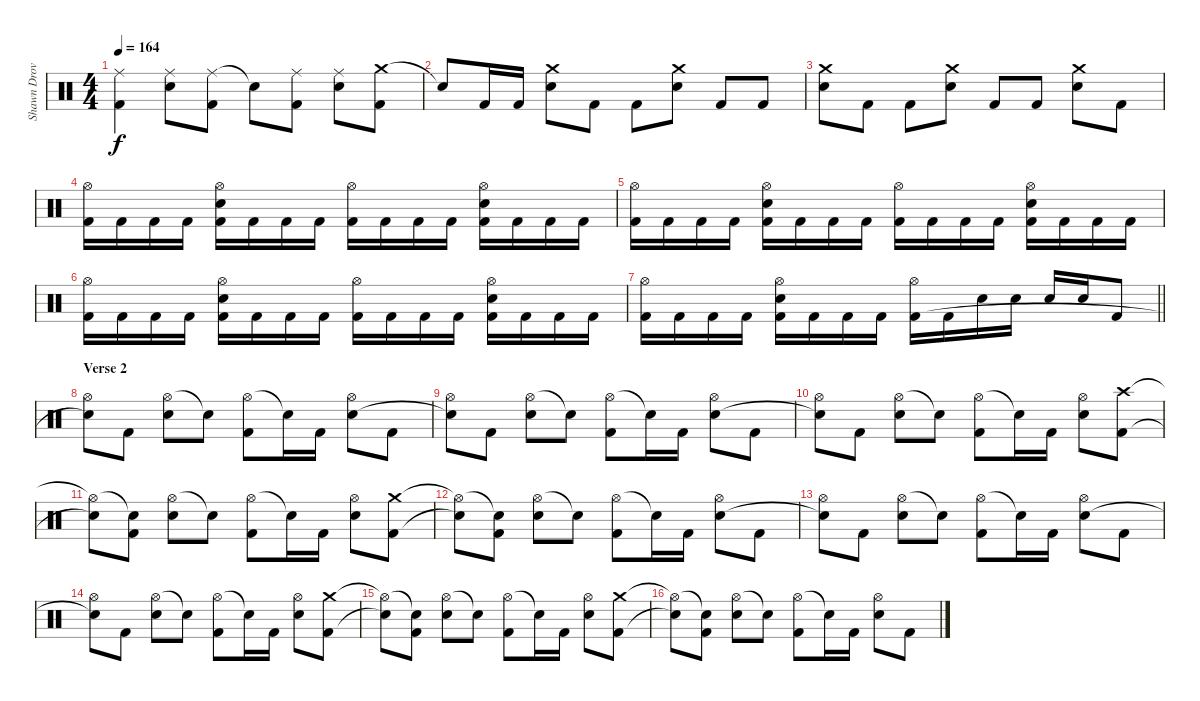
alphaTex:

\track ("Shawn Drover" "Shawn Drov") {instrument percussion}
\staff {score}
\articulation defaults
\ts (4 4)
\tempo 164
\clef neutral
\ks c
("Ride (middle)" "Kick (hit) 2").4{dy f} ("Ride (middle)" "Snare (hit) 2").8 ("Ride (middle)" "Kick (hit) 2").8 "Snare (hit)"{t}.8 ("Ride (middle)" "Kick (hit) 2").8 ("Ride (middle)" "Snare (hit) 2").8 ("Crash medium (hit)" "Kick (hit) 2").8 |
"Snare (hit)"{t}.8 "Kick (hit) 2".16 "Kick (hit) 2".16 ("Crash medium (hit)" "Snare (hit) 2").8 "Kick (hit) 2".8 "Kick (hit) 2".8 ("Crash medium (hit)" "Snare (hit) 2").8 "Kick (hit) 2".8 "Kick (hit) 2".8 |
("Crash medium (hit)" "Snare (hit) 2").8 "Kick (hit) 2".8 "Kick (hit) 2".8 ("Crash medium (hit)" "Snare (hit) 2").8 "Kick (hit) 2".8 "Kick (hit) 2".8 ("Crash medium (hit)" "Snare (hit) 2").8 "Kick (hit) 2".8 |
("Hi-Hat (open)" "Kick (hit) 2").16 "Kick (hit) 2".16 "Kick (hit) 2".16 "Kick (hit) 2".16 ("Hi-Hat (open)" "Snare (hit) 2" "Kick (hit) 2").16 "Kick (hit) 2".16 "Kick (hit) 2".16 "Kick (hit) 2".16 ("Hi-Hat (open)" "Kick (hit) 2").16 "Kick (hit) 2".16 "Kick (hit) 2".16 "Kick (hit) 2".16 ("Hi-Hat (open)" "Snare (hit) 2" "Kick (hit) 2").16 "Kick (hit) 2".16 "Kick (hit) 2".16 "Kick (hit) 2".16 |
("Hi-Hat (open)" "Kick (hit) 2").16 "Kick (hit) 2".16 "Kick (hit) 2".16 "Kick (hit) 2".16 ("Hi-Hat (open)" "Snare (hit) 2" "Kick (hit) 2").16 "Kick (hit) 2".16 "Kick (hit) 2".16 "Kick (hit) 2".16 ("Hi-Hat (open)" "Kick (hit) 2").16 "Kick (hit) 2".16 "Kick (hit) 2".16 "Kick (hit) 2".16 ("Hi-Hat (open)" "Snare (hit) 2" "Kick (hit) 2").16 "Kick (hit) 2".16 "Kick (hit) 2".16 "Kick (hit) 2".16 |
("Hi-Hat (open)" "Kick (hit) 2").16 "Kick (hit) 2".16 "Kick (hit) 2".16 "Kick (hit) 2".16 ("Hi-Hat (open)" "Snare (hit) 2" "Kick (hit) 2").16 "Kick (hit) 2".16 "Kick (hit) 2".16 "Kick (hit) 2".16 ("Hi-Hat (open)" "Kick (hit) 2").16 "Kick (hit) 2".16 "Kick (hit) 2".16 "Kick (hit) 2".16 ("Hi-Hat (open)" "Snare (hit) 2" "Kick (hit) 2").16 "Kick (hit) 2".16 "Kick (hit) 2".16 "Kick (hit) 2".16 |
\barLineRight lightlight
("Hi-Hat (open)" "Kick (hit) 2").16 "Kick (hit) 2".16 "Kick (hit) 2".16 "Kick (hit) 2".16 ("Hi-Hat (open)" "Snare (hit) 2" "Kick (hit) 2").16 "Kick (hit) 2".16 "Kick (hit) 2".16 "Kick (hit) 2".16 ("Hi-Hat (open)" "Kick (hit) 2").16 "Kick (hit) 2".16 "Snare (hit) 2".16 "Snare (hit) 2".16 "Snare (hit) 2".16 "Snare (hit) 2".16 "Kick (hit) 2".8 |
\section ("" "Verse 2")
("Hi-Hat (open)" "Snare (hit)"{t}).8 "Kick (hit) 2".8 ("Hi-Hat (open)" "Snare (hit) 2").8 "Snare (hit)"{t}.8 ("Hi-Hat (open)" "Kick (hit) 2").8 "Snare (hit)"{t}.16 "Kick (hit) 2".16 ("Hi-Hat (open)" "Snare (hit) 2").8 "Kick (hit) 2".8 |
("Hi-Hat (open)" "Snare (hit)"{t}).8 "Kick (hit) 2".8 ("Hi-Hat (open)" "Snare (hit) 2").8 "Snare (hit)"{t}.8 ("Hi-Hat (open)" "Kick (hit) 2").8 "Snare (hit)"{t}.16 "Kick (hit) 2".16 ("Hi-Hat (open)" "Snare (hit) 2").8 "Kick (hit) 2".8 |
("Hi-Hat (open)" "Snare (hit)"{t}).8 "Kick (hit) 2".8 ("Hi-Hat (open)" "Snare (hit) 2").8 "Snare (hit)"{t}.8 ("Hi-Hat (open)" "Kick (hit) 2").8 "Snare (hit)"{t}.16 "Kick (hit) 2".16 ("Hi-Hat (open)" "Snare (hit) 2").8 ("Crash high (hit)" "Kick (hit) 2").8 |
("Hi-Hat (open)"{t} "Snare (hit)"{t}).8 ("Snare (hit)"{t} "Kick (hit) 2").8 ("Hi-Hat (open)" "Snare (hit) 2").8 "Snare (hit)"{t}.8 ("Hi-Hat (open)" "Kick (hit) 2").8 "Snare (hit)"{t}.16 "Kick (hit) 2".16 ("Hi-Hat (open)" "Snare (hit) 2").8 ("Crash medium (hit)" "Kick (hit) 2").8 |
("Hi-Hat (open)"{t} "Snare (hit)"{t}).8 ("Snare (hit)"{t} "Kick (hit) 2").8 ("Hi-Hat (open)" "Snare (hit) 2").8 "Snare (hit)"{t}.8 ("Hi-Hat (open)" "Kick (hit) 2").8 "Snare (hit)"{t}.16 "Kick (hit) 2".16 ("Hi-Hat (open)" "Snare (hit) 2").8 "Kick (hit) 2".8 |
("Hi-Hat (open)" "Snare (hit)"{t}).8 "Kick (hit) 2".8 ("Hi-Hat (open)" "Snare (hit) 2").8 "Snare (hit)"{t}.8 ("Hi-Hat (open)" "Kick (hit) 2").8 "Snare (hit)"{t}.16 "Kick (hit) 2".16 ("Hi-Hat (open)" "Snare (hit) 2").8 "Kick (hit) 2".8 |
("Hi-Hat (open)" "Snare (hit)"{t}).8 "Kick (hit) 2".8 ("Hi-Hat (open)" "Snare (hit) 2").8 "Snare (hit)"{t}.8 ("Hi-Hat (open)" "Kick (hit) 2").8 "Snare (hit)"{t}.16 "Kick (hit) 2".16 ("Hi-Hat (open)" "Snare (hit) 2").8 ("Crash medium (hit)" "Kick (hit) 2").8 |
("Hi-Hat (open)"{t} "Snare (hit)"{t}).8 ("Snare (hit)"{t} "Kick (hit) 2").8 ("Hi-Hat (open)" "Snare (hit) 2").8 "Snare (hit)"{t}.8 ("Hi-Hat (open)" "Kick (hit) 2").8 "Snare (hit)"{t}.16 "Kick (hit) 2".16 ("Hi-Hat (open)" "Snare (hit) 2").8 ("Crash medium (hit)" "Kick (hit) 2").8 |
("Hi-Hat (open)"{t} "Snare (hit)"{t}).8 ("Snare (hit)"{t} "Kick (hit) 2").8 ("Hi-Hat (open)" "Snare (hit) 2").8 "Snare (hit)"{t}.8 ("Hi-Hat (open)" "Kick (hit) 2").8 "Snare (hit)"{t}.16 "Kick (hit) 2".16 ("Hi-Hat (open)" "Snare (hit) 2").8 "Kick (hit) 2".8
